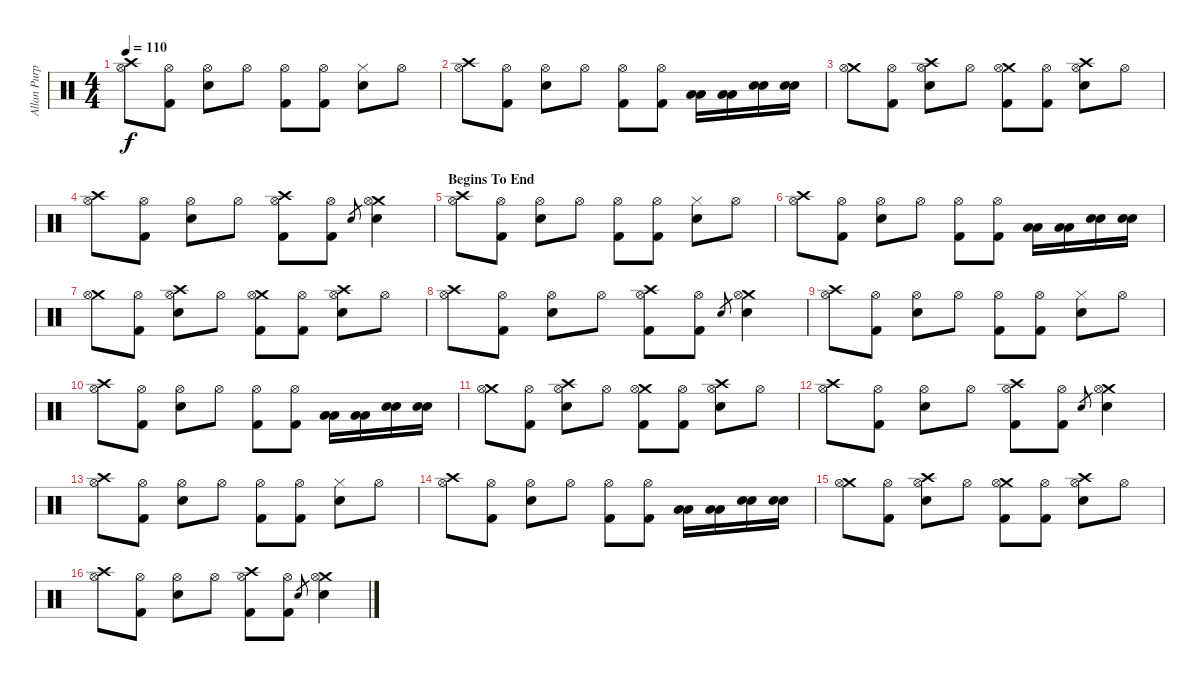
\track ("Allan Purple" "Allan Purp") {instrument percussion}
\staff {score}
\articulation defaults
\ts (4 4)
\tempo 110
\clef neutral
\ks c
("Crash high (hit)" "Hi-Hat (open)").8{dy f} ("Hi-Hat (open)" "Kick (hit) 2").8 ("Hi-Hat (open)" "Electric Snare (hit)").8 "Hi-Hat (open)".8 ("Hi-Hat (open)" "Kick (hit) 2").8 ("Hi-Hat (open)" "Kick (hit) 2").8 ("Hi-Hat (closed)" "Electric Snare (hit)").8 "Hi-Hat (open)".8 |
("Crash high (hit)" "Hi-Hat (open)").8 ("Hi-Hat (open)" "Kick (hit) 2").8 ("Hi-Hat (open)" "Electric Snare (hit)").8 "Hi-Hat (open)".8 ("Hi-Hat (open)" "Kick (hit) 2").8 ("Hi-Hat (open)" "Kick (hit) 2").8 ("Low Tom (hit)" "Low Tom (hit)").16 ("Low Tom (hit)" "Low Tom (hit)").16 ("Electric Snare (hit)" "Electric Snare (hit)").16 ("Electric Snare (hit)" "Electric Snare (hit)").16 |
("Crash medium (hit)" "Hi-Hat (open)").8 ("Hi-Hat (open)" "Kick (hit) 2").8 ("Crash high (hit)" "Hi-Hat (open)" "Electric Snare (hit)").8 "Hi-Hat (open)".8 ("Crash medium (hit)" "Hi-Hat (open)" "Kick (hit) 2").8 ("Hi-Hat (open)" "Kick (hit) 2").8 ("Crash high (hit)" "Hi-Hat (open)" "Electric Snare (hit)").8 "Hi-Hat (open)".8 |
("Crash high (hit)" "Hi-Hat (open)").8 ("Hi-Hat (open)" "Kick (hit) 2").8 ("Hi-Hat (open)" "Electric Snare (hit)").8 "Hi-Hat (open)".8 ("Crash high (hit)" "Hi-Hat (open)" "Kick (hit) 2").8 ("Hi-Hat (open)" "Kick (hit) 2").8 "Electric Snare (hit)".8{gr} ("Crash medium (hit)" "Hi-Hat (open)" "Electric Snare (hit)").4 |
\section ("" "Begins To End")
("Crash high (hit)" "Hi-Hat (open)").8 ("Hi-Hat (open)" "Kick (hit) 2").8 ("Hi-Hat (open)" "Electric Snare (hit)").8 "Hi-Hat (open)".8 ("Hi-Hat (open)" "Kick (hit) 2").8 ("Hi-Hat (open)" "Kick (hit) 2").8 ("Hi-Hat (closed)" "Electric Snare (hit)").8 "Hi-Hat (open)".8 |
("Crash high (hit)" "Hi-Hat (open)").8 ("Hi-Hat (open)" "Kick (hit) 2").8 ("Hi-Hat (open)" "Electric Snare (hit)").8 "Hi-Hat (open)".8 ("Hi-Hat (open)" "Kick (hit) 2").8 ("Hi-Hat (open)" "Kick (hit) 2").8 ("Low Tom (hit)" "Low Tom (hit)").16 ("Low Tom (hit)" "Low Tom (hit)").16 ("Electric Snare (hit)" "Electric Snare (hit)").16 ("Electric Snare (hit)" "Electric Snare (hit)").16 |
("Crash medium (hit)" "Hi-Hat (open)").8 ("Hi-Hat (open)" "Kick (hit) 2").8 ("Crash high (hit)" "Hi-Hat (open)" "Electric Snare (hit)").8 "Hi-Hat (open)".8 ("Crash medium (hit)" "Hi-Hat (open)" "Kick (hit) 2").8 ("Hi-Hat (open)" "Kick (hit) 2").8 ("Crash high (hit)" "Hi-Hat (open)" "Electric Snare (hit)").8 "Hi-Hat (open)".8 |
("Crash high (hit)" "Hi-Hat (open)").8 ("Hi-Hat (open)" "Kick (hit) 2").8 ("Hi-Hat (open)" "Electric Snare (hit)").8 "Hi-Hat (open)".8 ("Crash high (hit)" "Hi-Hat (open)" "Kick (hit) 2").8 ("Hi-Hat (open)" "Kick (hit) 2").8 "Electric Snare (hit)".8{gr} ("Crash medium (hit)" "Hi-Hat (open)" "Electric Snare (hit)").4 |
("Crash high (hit)" "Hi-Hat (open)").8 ("Hi-Hat (open)" "Kick (hit) 2").8 ("Hi-Hat (open)" "Electric Snare (hit)").8 "Hi-Hat (open)".8 ("Hi-Hat (open)" "Kick (hit) 2").8 ("Hi-Hat (open)" "Kick (hit) 2").8 ("Hi-Hat (closed)" "Electric Snare (hit)").8 "Hi-Hat (open)".8 |
("Crash high (hit)" "Hi-Hat (open)").8 ("Hi-Hat (open)" "Kick (hit) 2").8 ("Hi-Hat (open)" "Electric Snare (hit)").8 "Hi-Hat (open)".8 ("Hi-Hat (open)" "Kick (hit) 2").8 ("Hi-Hat (open)" "Kick (hit) 2").8 ("Low Tom (hit)" "Low Tom (hit)").16 ("Low Tom (hit)" "Low Tom (hit)").16 ("Electric Snare (hit)" "Electric Snare (hit)").16 ("Electric Snare (hit)" "Electric Snare (hit)").16 |
("Crash medium (hit)" "Hi-Hat (open)").8 ("Hi-Hat (open)" "Kick (hit) 2").8 ("Crash high (hit)" "Hi-Hat (open)" "Electric Snare (hit)").8 "Hi-Hat (open)".8 ("Crash medium (hit)" "Hi-Hat (open)" "Kick (hit) 2").8 ("Hi-Hat (open)" "Kick (hit) 2").8 ("Crash high (hit)" "Hi-Hat (open)" "Electric Snare (hit)").8 "Hi-Hat (open)".8 |
("Crash high (hit)" "Hi-Hat (open)").8 ("Hi-Hat (open)" "Kick (hit) 2").8 ("Hi-Hat (open)" "Electric Snare (hit)").8 "Hi-Hat (open)".8 ("Crash high (hit)" "Hi-Hat (open)" "Kick (hit) 2").8 ("Hi-Hat (open)" "Kick (hit) 2").8 "Electric Snare (hit)".8{gr} ("Crash medium (hit)" "Hi-Hat (open)" "Electric Snare (hit)").4 |
("Crash high (hit)" "Hi-Hat (open)").8 ("Hi-Hat (open)" "Kick (hit) 2").8 ("Hi-Hat (open)" "Electric Snare (hit)").8 "Hi-Hat (open)".8 ("Hi-Hat (open)" "Kick (hit) 2").8 ("Hi-Hat (open)" "Kick (hit) 2").8 ("Hi-Hat (closed)" "Electric Snare (hit)").8 "Hi-Hat (open)".8 |
("Crash high (hit)" "Hi-Hat (open)").8 ("Hi-Hat (open)" "Kick (hit) 2").8 ("Hi-Hat (open)" "Electric Snare (hit)").8 "Hi-Hat (open)".8 ("Hi-Hat (open)" "Kick (hit) 2").8 ("Hi-Hat (open)" "Kick (hit) 2").8 ("Low Tom (hit)" "Low Tom (hit)").16 ("Low Tom (hit)" "Low Tom (hit)").16 ("Electric Snare (hit)" "Electric Snare (hit)").16 ("Electric Snare (hit)" "Electric Snare (hit)").16 |
("Crash medium (hit)" "Hi-Hat (open)").8 ("Hi-Hat (open)" "Kick (hit) 2").8 ("Crash high (hit)" "Hi-Hat (open)" "Electric Snare (hit)").8 "Hi-Hat (open)".8 ("Crash medium (hit)" "Hi-Hat (open)" "Kick (hit) 2").8 ("Hi-Hat (open)" "Kick (hit) 2").8 ("Crash high (hit)" "Hi-Hat (open)" "Electric Snare (hit)").8 "Hi-Hat (open)".8 |
("Crash high (hit)" "Hi-Hat (open)").8 ("Hi-Hat (open)" "Kick (hit) 2").8 ("Hi-Hat (open)" "Electric Snare (hit)").8 "Hi-Hat (open)".8 ("Crash high (hit)" "Hi-Hat (open)" "Kick (hit) 2").8 ("Hi-Hat (open)" "Kick (hit) 2").8 "Electric Snare (hit)".8{gr} ("Crash medium (hit)" "Hi-Hat (open)" "Electric Snare (hit)").4
